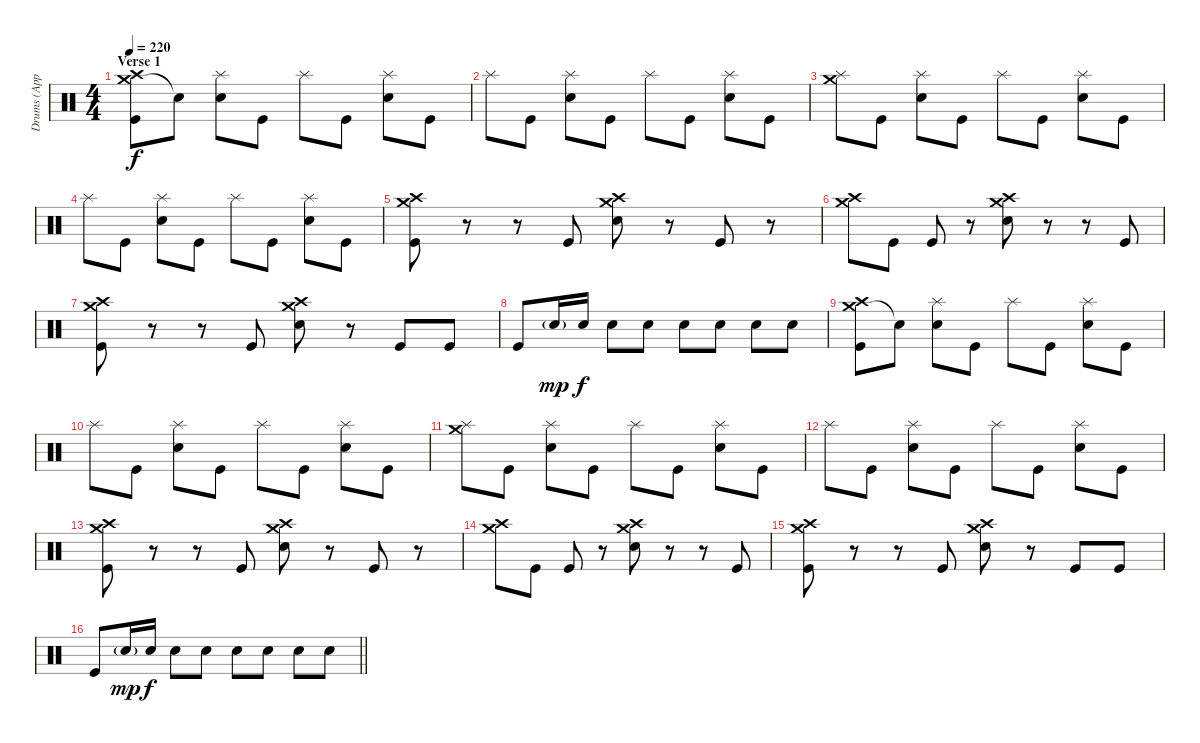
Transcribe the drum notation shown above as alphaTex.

\track ("Drums (Approx.)" "Drums (App") {instrument percussion}
\staff {score}
\articulation defaults
\ts (4 4)
\section ("" "Verse 1")
\tempo 220
\clef neutral
\ks c
("Crash medium (hit)" "Crash high (hit)" "Kick (hit)").8{dy f} "Snare (hit)"{t}.8 ("Splash (hit)" "Electric Snare (hit)").8 "Kick (hit)".8 "Splash (hit)".8 "Kick (hit)".8 ("Splash (hit)" "Electric Snare (hit)").8 "Kick (hit)".8 |
"Splash (hit)".8 "Kick (hit)".8 ("Splash (hit)" "Electric Snare (hit)").8 "Kick (hit)".8 "Splash (hit)".8 "Kick (hit)".8 ("Splash (hit)" "Electric Snare (hit)").8 "Kick (hit)".8 |
("Splash (hit)" "Crash medium (hit)").8 "Kick (hit)".8 ("Splash (hit)" "Electric Snare (hit)").8 "Kick (hit)".8 "Splash (hit)".8 "Kick (hit)".8 ("Splash (hit)" "Electric Snare (hit)").8 "Kick (hit)".8 |
"Splash (hit)".8 "Kick (hit)".8 ("Splash (hit)" "Electric Snare (hit)").8 "Kick (hit)".8 "Splash (hit)".8 "Kick (hit)".8 ("Splash (hit)" "Electric Snare (hit)").8 "Kick (hit)".8 |
("Crash medium (hit)" "Crash high (hit)" "Kick (hit)").8 r.8 r.8 "Kick (hit)".8 ("Crash medium (hit)" "Crash high (hit)" "Electric Snare (hit)").8 r.8 "Kick (hit)".8 r.8 |
("Crash medium (hit)" "Crash high (hit)").8 "Kick (hit)".8 "Kick (hit)".8 r.8 ("Crash medium (hit)" "Crash high (hit)" "Electric Snare (hit)").8 r.8 r.8 "Kick (hit)".8 |
("Crash medium (hit)" "Crash high (hit)" "Kick (hit)").8 r.8 r.8 "Kick (hit)".8 ("Crash medium (hit)" "Crash high (hit)" "Electric Snare (hit)").8 r.8 "Kick (hit)".8 "Kick (hit)".8 |
"Kick (hit)".8 "Electric Snare (hit)"{g}.16{dy mp} "Electric Snare (hit)".16{dy f} "Electric Snare (hit)".8 "Electric Snare (hit)".8 "Electric Snare (hit)".8 "Electric Snare (hit)".8 "Electric Snare (hit)".8 "Electric Snare (hit)".8 |
("Crash medium (hit)" "Crash high (hit)" "Kick (hit)").8 "Snare (hit)"{t}.8 ("Splash (hit)" "Electric Snare (hit)").8 "Kick (hit)".8 "Splash (hit)".8 "Kick (hit)".8 ("Splash (hit)" "Electric Snare (hit)").8 "Kick (hit)".8 |
"Splash (hit)".8 "Kick (hit)".8 ("Splash (hit)" "Electric Snare (hit)").8 "Kick (hit)".8 "Splash (hit)".8 "Kick (hit)".8 ("Splash (hit)" "Electric Snare (hit)").8 "Kick (hit)".8 |
("Splash (hit)" "Crash medium (hit)").8 "Kick (hit)".8 ("Splash (hit)" "Electric Snare (hit)").8 "Kick (hit)".8 "Splash (hit)".8 "Kick (hit)".8 ("Splash (hit)" "Electric Snare (hit)").8 "Kick (hit)".8 |
"Splash (hit)".8 "Kick (hit)".8 ("Splash (hit)" "Electric Snare (hit)").8 "Kick (hit)".8 "Splash (hit)".8 "Kick (hit)".8 ("Splash (hit)" "Electric Snare (hit)").8 "Kick (hit)".8 |
("Crash medium (hit)" "Crash high (hit)" "Kick (hit)").8 r.8 r.8 "Kick (hit)".8 ("Crash medium (hit)" "Crash high (hit)" "Electric Snare (hit)").8 r.8 "Kick (hit)".8 r.8 |
("Crash medium (hit)" "Crash high (hit)").8 "Kick (hit)".8 "Kick (hit)".8 r.8 ("Crash medium (hit)" "Crash high (hit)" "Electric Snare (hit)").8 r.8 r.8 "Kick (hit)".8 |
("Crash medium (hit)" "Crash high (hit)" "Kick (hit)").8 r.8 r.8 "Kick (hit)".8 ("Crash medium (hit)" "Crash high (hit)" "Electric Snare (hit)").8 r.8 "Kick (hit)".8 "Kick (hit)".8 |
\barLineRight lightlight "Kick (hit)".8 "Electric Snare (hit)"{g}.16{dy mp} "Electric Snare (hit)".16{dy f} "Electric Snare (hit)".8 "Electric Snare (hit)".8 "Electric Snare (hit)".8 "Electric Snare (hit)".8 "Electric Snare (hit)".8 "Electric Snare (hit)".8
